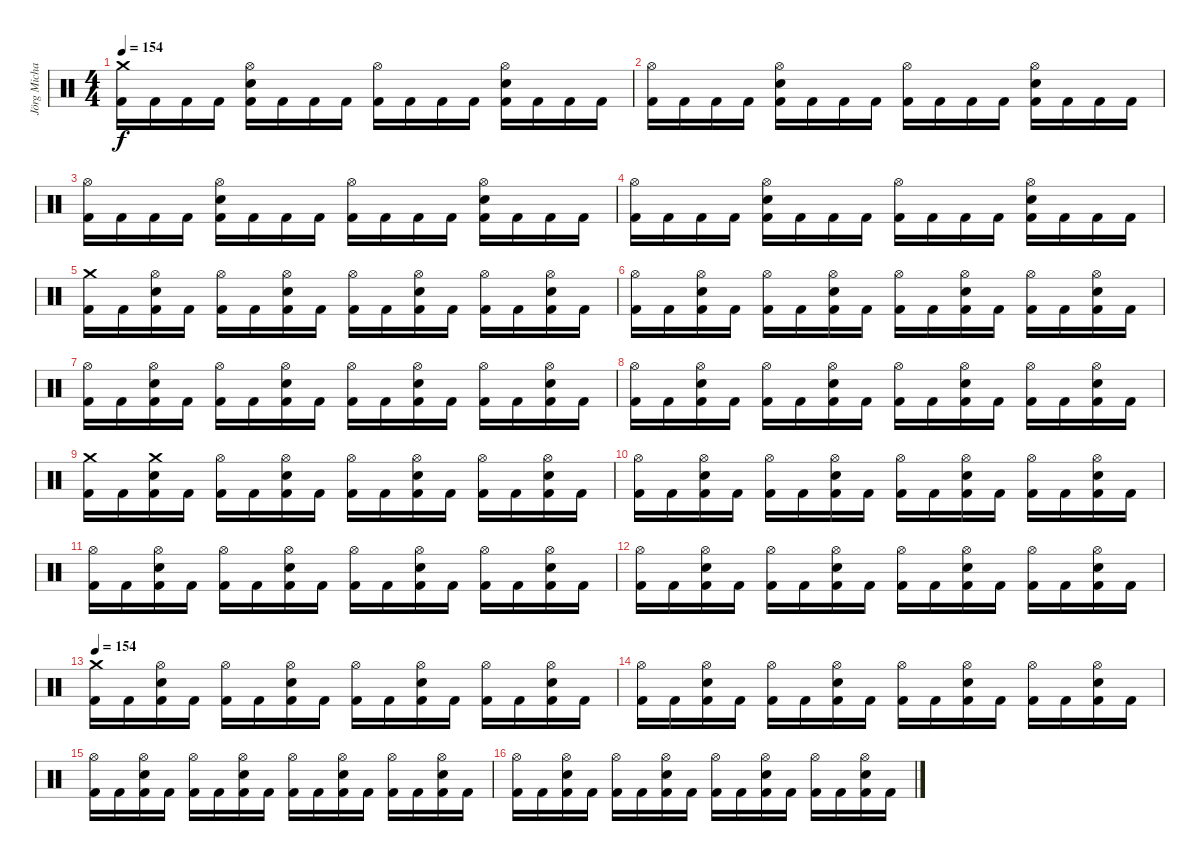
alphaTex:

\track ("Jörg Michael" "Jörg Micha") {instrument percussion}
\staff {score}
\articulation defaults
\ts (4 4)
\tempo 154
\clef neutral
\ks c
("Crash medium (hit)" "Kick (hit) 2").16{dy f} "Kick (hit) 2".16 "Kick (hit) 2".16 "Kick (hit) 2".16 ("Snare (hit) 2" "Hi-Hat (open)" "Kick (hit) 2").16 "Kick (hit) 2".16 "Kick (hit) 2".16 "Kick (hit) 2".16 ("Hi-Hat (open)" "Kick (hit) 2").16 "Kick (hit) 2".16 "Kick (hit) 2".16 "Kick (hit) 2".16 ("Snare (hit) 2" "Hi-Hat (open)" "Kick (hit) 2").16 "Kick (hit) 2".16 "Kick (hit) 2".16 "Kick (hit) 2".16 |
("Hi-Hat (open)" "Kick (hit) 2").16 "Kick (hit) 2".16 "Kick (hit) 2".16 "Kick (hit) 2".16 ("Snare (hit) 2" "Hi-Hat (open)" "Kick (hit) 2").16 "Kick (hit) 2".16 "Kick (hit) 2".16 "Kick (hit) 2".16 ("Hi-Hat (open)" "Kick (hit) 2").16 "Kick (hit) 2".16 "Kick (hit) 2".16 "Kick (hit) 2".16 ("Snare (hit) 2" "Hi-Hat (open)" "Kick (hit) 2").16 "Kick (hit) 2".16 "Kick (hit) 2".16 "Kick (hit) 2".16 |
("Hi-Hat (open)" "Kick (hit) 2").16 "Kick (hit) 2".16 "Kick (hit) 2".16 "Kick (hit) 2".16 ("Snare (hit) 2" "Hi-Hat (open)" "Kick (hit) 2").16 "Kick (hit) 2".16 "Kick (hit) 2".16 "Kick (hit) 2".16 ("Hi-Hat (open)" "Kick (hit) 2").16 "Kick (hit) 2".16 "Kick (hit) 2".16 "Kick (hit) 2".16 ("Snare (hit) 2" "Hi-Hat (open)" "Kick (hit) 2").16 "Kick (hit) 2".16 "Kick (hit) 2".16 "Kick (hit) 2".16 |
("Hi-Hat (open)" "Kick (hit) 2").16 "Kick (hit) 2".16 "Kick (hit) 2".16 "Kick (hit) 2".16 ("Snare (hit) 2" "Hi-Hat (open)" "Kick (hit) 2").16 "Kick (hit) 2".16 "Kick (hit) 2".16 "Kick (hit) 2".16 ("Hi-Hat (open)" "Kick (hit) 2").16 "Kick (hit) 2".16 "Kick (hit) 2".16 "Kick (hit) 2".16 ("Snare (hit) 2" "Hi-Hat (open)" "Kick (hit) 2").16 "Kick (hit) 2".16 "Kick (hit) 2".16 "Kick (hit) 2".16 |
("Crash medium (hit)" "Kick (hit) 2").16 "Kick (hit) 2".16 ("Snare (hit) 2" "Hi-Hat (open)" "Kick (hit) 2").16 "Kick (hit) 2".16 ("Hi-Hat (open)" "Kick (hit) 2").16 "Kick (hit) 2".16 ("Snare (hit) 2" "Hi-Hat (open)" "Kick (hit) 2").16 "Kick (hit) 2".16 ("Hi-Hat (open)" "Kick (hit) 2").16 "Kick (hit) 2".16 ("Snare (hit) 2" "Hi-Hat (open)" "Kick (hit) 2").16 "Kick (hit) 2".16 ("Hi-Hat (open)" "Kick (hit) 2").16 "Kick (hit) 2".16 ("Snare (hit) 2" "Hi-Hat (open)" "Kick (hit) 2").16 "Kick (hit) 2".16 |
("Hi-Hat (open)" "Kick (hit) 2").16 "Kick (hit) 2".16 ("Snare (hit) 2" "Hi-Hat (open)" "Kick (hit) 2").16 "Kick (hit) 2".16 ("Hi-Hat (open)" "Kick (hit) 2").16 "Kick (hit) 2".16 ("Snare (hit) 2" "Hi-Hat (open)" "Kick (hit) 2").16 "Kick (hit) 2".16 ("Hi-Hat (open)" "Kick (hit) 2").16 "Kick (hit) 2".16 ("Snare (hit) 2" "Hi-Hat (open)" "Kick (hit) 2").16 "Kick (hit) 2".16 ("Hi-Hat (open)" "Kick (hit) 2").16 "Kick (hit) 2".16 ("Snare (hit) 2" "Hi-Hat (open)" "Kick (hit) 2").16 "Kick (hit) 2".16 |
("Hi-Hat (open)" "Kick (hit) 2").16 "Kick (hit) 2".16 ("Snare (hit) 2" "Hi-Hat (open)" "Kick (hit) 2").16 "Kick (hit) 2".16 ("Hi-Hat (open)" "Kick (hit) 2").16 "Kick (hit) 2".16 ("Snare (hit) 2" "Hi-Hat (open)" "Kick (hit) 2").16 "Kick (hit) 2".16 ("Hi-Hat (open)" "Kick (hit) 2").16 "Kick (hit) 2".16 ("Snare (hit) 2" "Hi-Hat (open)" "Kick (hit) 2").16 "Kick (hit) 2".16 ("Hi-Hat (open)" "Kick (hit) 2").16 "Kick (hit) 2".16 ("Snare (hit) 2" "Hi-Hat (open)" "Kick (hit) 2").16 "Kick (hit) 2".16 |
("Hi-Hat (open)" "Kick (hit) 2").16 "Kick (hit) 2".16 ("Snare (hit) 2" "Hi-Hat (open)" "Kick (hit) 2").16 "Kick (hit) 2".16 ("Hi-Hat (open)" "Kick (hit) 2").16 "Kick (hit) 2".16 ("Snare (hit) 2" "Hi-Hat (open)" "Kick (hit) 2").16 "Kick (hit) 2".16 ("Hi-Hat (open)" "Kick (hit) 2").16 "Kick (hit) 2".16 ("Snare (hit) 2" "Hi-Hat (open)" "Kick (hit) 2").16 "Kick (hit) 2".16 ("Hi-Hat (open)" "Kick (hit) 2").16 "Kick (hit) 2".16 ("Snare (hit) 2" "Hi-Hat (open)" "Kick (hit) 2").16 "Kick (hit) 2".16 |
("Crash medium (hit)" "Kick (hit) 2").16 "Kick (hit) 2".16 ("Crash medium (hit)" "Snare (hit) 2" "Kick (hit) 2").16 "Kick (hit) 2".16 ("Hi-Hat (open)" "Kick (hit) 2").16 "Kick (hit) 2".16 ("Snare (hit) 2" "Hi-Hat (open)" "Kick (hit) 2").16 "Kick (hit) 2".16 ("Hi-Hat (open)" "Kick (hit) 2").16 "Kick (hit) 2".16 ("Snare (hit) 2" "Hi-Hat (open)" "Kick (hit) 2").16 "Kick (hit) 2".16 ("Hi-Hat (open)" "Kick (hit) 2").16 "Kick (hit) 2".16 ("Snare (hit) 2" "Hi-Hat (open)" "Kick (hit) 2").16 "Kick (hit) 2".16 |
("Hi-Hat (open)" "Kick (hit) 2").16 "Kick (hit) 2".16 ("Snare (hit) 2" "Hi-Hat (open)" "Kick (hit) 2").16 "Kick (hit) 2".16 ("Hi-Hat (open)" "Kick (hit) 2").16 "Kick (hit) 2".16 ("Snare (hit) 2" "Hi-Hat (open)" "Kick (hit) 2").16 "Kick (hit) 2".16 ("Hi-Hat (open)" "Kick (hit) 2").16 "Kick (hit) 2".16 ("Snare (hit) 2" "Hi-Hat (open)" "Kick (hit) 2").16 "Kick (hit) 2".16 ("Hi-Hat (open)" "Kick (hit) 2").16 "Kick (hit) 2".16 ("Snare (hit) 2" "Hi-Hat (open)" "Kick (hit) 2").16 "Kick (hit) 2".16 |
("Hi-Hat (open)" "Kick (hit) 2").16 "Kick (hit) 2".16 ("Snare (hit) 2" "Hi-Hat (open)" "Kick (hit) 2").16 "Kick (hit) 2".16 ("Hi-Hat (open)" "Kick (hit) 2").16 "Kick (hit) 2".16 ("Snare (hit) 2" "Hi-Hat (open)" "Kick (hit) 2").16 "Kick (hit) 2".16 ("Hi-Hat (open)" "Kick (hit) 2").16 "Kick (hit) 2".16 ("Snare (hit) 2" "Hi-Hat (open)" "Kick (hit) 2").16 "Kick (hit) 2".16 ("Hi-Hat (open)" "Kick (hit) 2").16 "Kick (hit) 2".16 ("Snare (hit) 2" "Hi-Hat (open)" "Kick (hit) 2").16 "Kick (hit) 2".16 |
("Hi-Hat (open)" "Kick (hit) 2").16 "Kick (hit) 2".16 ("Snare (hit) 2" "Hi-Hat (open)" "Kick (hit) 2").16 "Kick (hit) 2".16 ("Hi-Hat (open)" "Kick (hit) 2").16 "Kick (hit) 2".16 ("Snare (hit) 2" "Hi-Hat (open)" "Kick (hit) 2").16 "Kick (hit) 2".16 ("Hi-Hat (open)" "Kick (hit) 2").16 "Kick (hit) 2".16 ("Snare (hit) 2" "Hi-Hat (open)" "Kick (hit) 2").16 "Kick (hit) 2".16 ("Hi-Hat (open)" "Kick (hit) 2").16 "Kick (hit) 2".16 ("Snare (hit) 2" "Hi-Hat (open)" "Kick (hit) 2").16 "Kick (hit) 2".16 |
\tempo 154
("Crash medium (hit)" "Kick (hit) 2").16 "Kick (hit) 2".16 ("Snare (hit) 2" "Hi-Hat (open)" "Kick (hit) 2").16 "Kick (hit) 2".16 ("Hi-Hat (open)" "Kick (hit) 2").16 "Kick (hit) 2".16 ("Snare (hit) 2" "Hi-Hat (open)" "Kick (hit) 2").16 "Kick (hit) 2".16 ("Hi-Hat (open)" "Kick (hit) 2").16 "Kick (hit) 2".16 ("Snare (hit) 2" "Hi-Hat (open)" "Kick (hit) 2").16 "Kick (hit) 2".16 ("Hi-Hat (open)" "Kick (hit) 2").16 "Kick (hit) 2".16 ("Snare (hit) 2" "Hi-Hat (open)" "Kick (hit) 2").16 "Kick (hit) 2".16 |
("Hi-Hat (open)" "Kick (hit) 2").16 "Kick (hit) 2".16 ("Snare (hit) 2" "Hi-Hat (open)" "Kick (hit) 2").16 "Kick (hit) 2".16 ("Hi-Hat (open)" "Kick (hit) 2").16 "Kick (hit) 2".16 ("Snare (hit) 2" "Hi-Hat (open)" "Kick (hit) 2").16 "Kick (hit) 2".16 ("Hi-Hat (open)" "Kick (hit) 2").16 "Kick (hit) 2".16 ("Snare (hit) 2" "Hi-Hat (open)" "Kick (hit) 2").16 "Kick (hit) 2".16 ("Hi-Hat (open)" "Kick (hit) 2").16 "Kick (hit) 2".16 ("Snare (hit) 2" "Hi-Hat (open)" "Kick (hit) 2").16 "Kick (hit) 2".16 |
("Hi-Hat (open)" "Kick (hit) 2").16 "Kick (hit) 2".16 ("Snare (hit) 2" "Hi-Hat (open)" "Kick (hit) 2").16 "Kick (hit) 2".16 ("Hi-Hat (open)" "Kick (hit) 2").16 "Kick (hit) 2".16 ("Snare (hit) 2" "Hi-Hat (open)" "Kick (hit) 2").16 "Kick (hit) 2".16 ("Hi-Hat (open)" "Kick (hit) 2").16 "Kick (hit) 2".16 ("Snare (hit) 2" "Hi-Hat (open)" "Kick (hit) 2").16 "Kick (hit) 2".16 ("Hi-Hat (open)" "Kick (hit) 2").16 "Kick (hit) 2".16 ("Snare (hit) 2" "Hi-Hat (open)" "Kick (hit) 2").16 "Kick (hit) 2".16 |
("Hi-Hat (open)" "Kick (hit) 2").16 "Kick (hit) 2".16 ("Snare (hit) 2" "Hi-Hat (open)" "Kick (hit) 2").16 "Kick (hit) 2".16 ("Hi-Hat (open)" "Kick (hit) 2").16 "Kick (hit) 2".16 ("Snare (hit) 2" "Hi-Hat (open)" "Kick (hit) 2").16 "Kick (hit) 2".16 ("Hi-Hat (open)" "Kick (hit) 2").16 "Kick (hit) 2".16 ("Snare (hit) 2" "Hi-Hat (open)" "Kick (hit) 2").16 "Kick (hit) 2".16 ("Hi-Hat (open)" "Kick (hit) 2").16 "Kick (hit) 2".16 ("Snare (hit) 2" "Hi-Hat (open)" "Kick (hit) 2").16 "Kick (hit) 2".16
